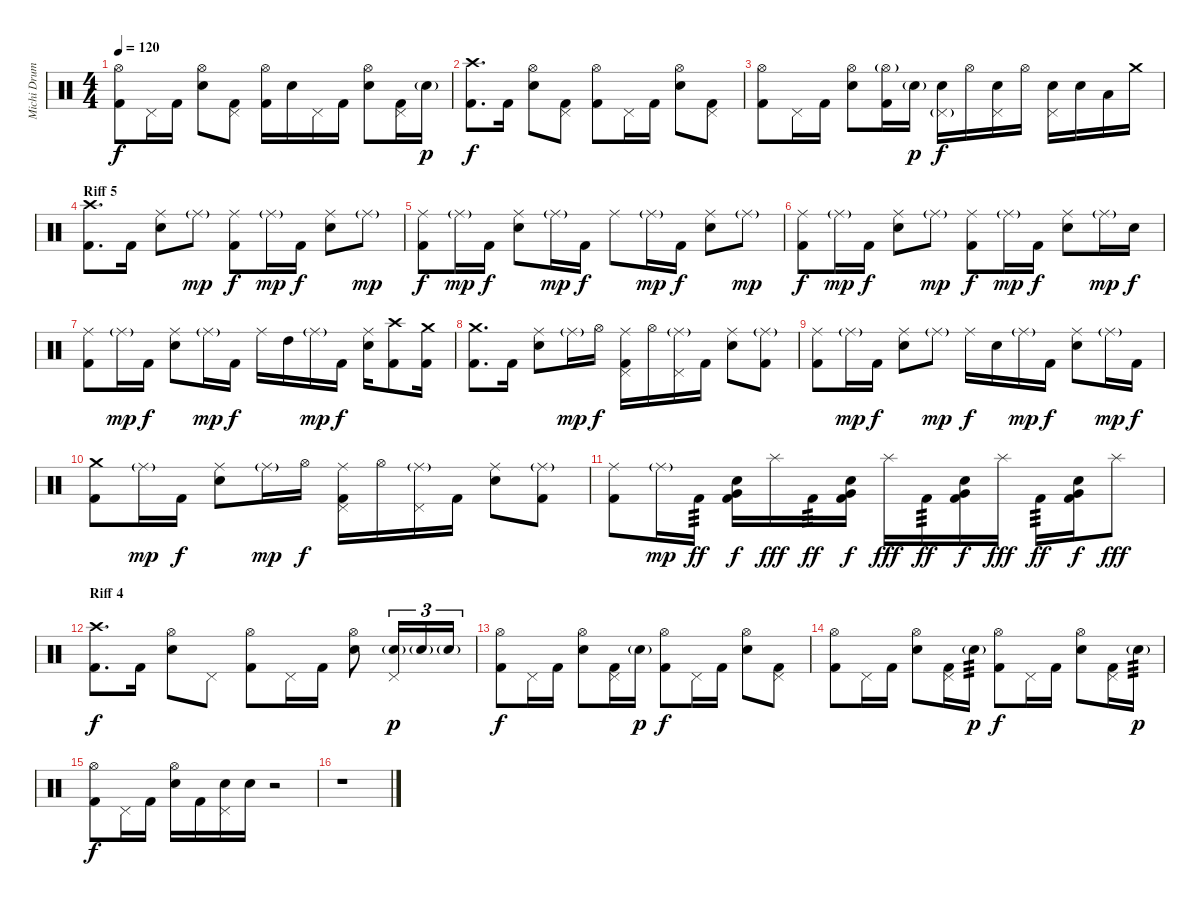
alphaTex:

\track ("Michi Drums" "Michi Drum") {instrument percussion}
\staff {score}
\articulation defaults
\ts (4 4)
\tempo 120
\clef neutral
\ks c
("Hi-Hat (open)" "Kick (hit) 2").8{dy f} "Pedal Hi-Hat (hit)".16 "Kick (hit) 2".16 ("Hi-Hat (open)" "Electric Snare (hit)").8 ("Pedal Hi-Hat (hit)" "Kick (hit) 2").8 ("Hi-Hat (open)" "Kick (hit) 2").16 "Electric Snare (hit)".16 "Pedal Hi-Hat (hit)".16 "Kick (hit) 2".16 ("Hi-Hat (open)" "Electric Snare (hit)").8 ("Pedal Hi-Hat (hit)" "Kick (hit) 2").16 "Electric Snare (hit)"{g}.16{dy p} |
("Crash high (hit)" "Kick (hit) 2").8{d dy f} "Kick (hit) 2".16 ("Hi-Hat (open)" "Electric Snare (hit)").8 ("Pedal Hi-Hat (hit)" "Kick (hit) 2").8 ("Hi-Hat (open)" "Kick (hit) 2").8 "Pedal Hi-Hat (hit)".16 "Kick (hit) 2".16 ("Hi-Hat (open)" "Electric Snare (hit)").8 ("Pedal Hi-Hat (hit)" "Kick (hit) 2").8 |
("Hi-Hat (open)" "Kick (hit) 2").8 "Pedal Hi-Hat (hit)".16 "Kick (hit) 2".16 ("Hi-Hat (open)" "Electric Snare (hit)").8 ("Hi-Hat (open)"{g} "Kick (hit) 2").16 "Electric Snare (hit)"{g}.16{dy p} ("Pedal Hi-Hat (hit)"{g} "Electric Snare (hit)").16{dy f} "Hi-Hat (open)".16 ("Pedal Hi-Hat (hit)" "Electric Snare (hit)").16 "Hi-Hat (open)".16 ("Pedal Hi-Hat (hit)" "Electric Snare (hit)").16 "Electric Snare (hit)".16 "Low Tom (hit)".16 "Crash medium (hit)".16 |
\section ("" "Riff 5")
("Crash high (hit)" "Kick (hit) 2").8{d} "Kick (hit) 2".16 ("Ride (middle)" "Electric Snare (hit)").8 "Ride (middle)"{g}.8{dy mp} ("Ride (middle)" "Kick (hit) 2").8{dy f} "Ride (middle)"{g}.16{dy mp} "Kick (hit) 2".16{dy f} ("Ride (middle)" "Electric Snare (hit)").8 "Ride (middle)"{g}.8{dy mp} |
("Ride (middle)" "Kick (hit) 2").8{dy f} "Ride (middle)"{g}.16{dy mp} "Kick (hit) 2".16{dy f} ("Ride (middle)" "Electric Snare (hit)").8 "Ride (middle)"{g}.16{dy mp} "Kick (hit) 2".16{dy f} "Ride (middle)".8 "Ride (middle)"{g}.16{dy mp} "Kick (hit) 2".16{dy f} ("Ride (middle)" "Electric Snare (hit)").8 "Ride (middle)"{g}.8{dy mp} |
("Ride (middle)" "Kick (hit) 2").8{dy f} "Ride (middle)"{g}.16{dy mp} "Kick (hit) 2".16{dy f} ("Ride (middle)" "Electric Snare (hit)").8 "Ride (middle)"{g}.8{dy mp} ("Ride (middle)" "Kick (hit) 2").8{dy f} "Ride (middle)"{g}.16{dy mp} "Kick (hit) 2".16{dy f} ("Ride (middle)" "Electric Snare (hit)").8 "Ride (middle)"{g}.16{dy mp} "Electric Snare (hit)".16{dy f} |
("Ride (middle)" "Kick (hit) 2").8 "Ride (middle)"{g}.16{dy mp} "Kick (hit) 2".16{dy f} ("Ride (middle)" "Electric Snare (hit)").8 "Ride (middle)"{g}.16{dy mp} "Kick (hit) 2".16{dy f} "Ride (middle)".16 "High Tom (hit)".16 "Ride (middle)"{g}.16{dy mp} "Kick (hit) 2".16{dy f} ("Ride (middle)" "Electric Snare (hit)").16 ("Crash high (hit)" "Kick (hit) 2").8 ("Crash medium (hit)" "Kick (hit) 2").16 |
("Crash medium (hit)" "Kick (hit) 2").8{d} "Kick (hit) 2".16 ("Ride (middle)" "Electric Snare (hit)").8 "Ride (middle)"{g}.16{dy mp} "Hi-Hat (open)".16{dy f} ("Ride (middle)" "Pedal Hi-Hat (hit)" "Kick (hit) 2").16 "Hi-Hat (open)".16 ("Ride (middle)"{g} "Pedal Hi-Hat (hit)").16 "Kick (hit) 2".16 ("Ride (middle)" "Electric Snare (hit)").8 ("Ride (middle)"{g} "Kick (hit) 2").8 |
("Ride (middle)" "Kick (hit) 2").8 "Ride (middle)"{g}.16{dy mp} "Kick (hit) 2".16{dy f} ("Ride (middle)" "Electric Snare (hit)").8 "Ride (middle)"{g}.8{dy mp} "Ride (middle)".16{dy f} "Electric Snare (hit)".16 "Ride (middle)"{g}.16{dy mp} "Kick (hit) 2".16{dy f} ("Ride (middle)" "Electric Snare (hit)").8 "Ride (middle)"{g}.16{dy mp} "Kick (hit) 2".16{dy f} |
("Crash medium (hit)" "Kick (hit) 2").8 "Ride (middle)"{g}.16{dy mp} "Kick (hit) 2".16{dy f} ("Ride (middle)" "Electric Snare (hit)").8 "Ride (middle)"{g}.16{dy mp} "Hi-Hat (open)".16{dy f} ("Ride (middle)" "Pedal Hi-Hat (hit)" "Kick (hit) 2").16 "Hi-Hat (open)".16 ("Ride (middle)"{g} "Pedal Hi-Hat (hit)").16 "Kick (hit) 2".16 ("Ride (middle)" "Electric Snare (hit)").8 ("Ride (middle)"{g} "Kick (hit) 2").8 |
("Ride (middle)" "Kick (hit) 2").8 "Ride (middle)"{g}.16{dy mp} "Kick (hit) 2".16{tp 3 dy ff} ("Electric Snare (hit)" "Very Low Tom (hit)" "Kick (hit) 2").16{bd 480 dy f} "Splash (hit)".16{dy fff} "Kick (hit) 2".16{tp 3 dy ff} ("Electric Snare (hit)" "Very Low Tom (hit)" "Kick (hit) 2").16{bd 480 dy f} "Splash (hit)".16{dy fff} "Kick (hit) 2".16{tp 3 dy ff} ("Electric Snare (hit)" "Very Low Tom (hit)" "Kick (hit) 2").16{bd 480 dy f} "Splash (hit)".16{dy fff} "Kick (hit) 2".16{tp 3 dy ff} ("Electric Snare (hit)" "Very Low Tom (hit)" "Kick (hit) 2").16{bd 480 dy f} "Splash (hit)".8{dy fff} |
\section ("" "Riff 4")
("Crash high (hit)" "Kick (hit) 2").8{d dy f} "Kick (hit) 2".16 ("Hi-Hat (open)" "Electric Snare (hit)").8 "Pedal Hi-Hat (hit)".8 ("Hi-Hat (open)" "Kick (hit) 2").8 "Pedal Hi-Hat (hit)".16 "Kick (hit) 2".16 ("Hi-Hat (open)" "Electric Snare (hit)").8 ("Pedal Hi-Hat (hit)" "Electric Snare (hit)"{g}).16{tu (3 2) dy p} "Electric Snare (hit)"{g}.16{tu (3 2)} "Electric Snare (hit)"{g}.16{tu (3 2)} |
("Hi-Hat (open)" "Kick (hit) 2").8{dy f} "Pedal Hi-Hat (hit)".16 "Kick (hit) 2".16 ("Hi-Hat (open)" "Electric Snare (hit)").8 ("Pedal Hi-Hat (hit)" "Kick (hit) 2").16 "Electric Snare (hit)"{g}.16{dy p} ("Hi-Hat (open)" "Kick (hit) 2").8{dy f} "Pedal Hi-Hat (hit)".16 "Kick (hit) 2".16 ("Hi-Hat (open)" "Electric Snare (hit)").8 ("Pedal Hi-Hat (hit)" "Kick (hit) 2").8 |
("Hi-Hat (open)" "Kick (hit) 2").8 "Pedal Hi-Hat (hit)".16 "Kick (hit) 2".16 ("Hi-Hat (open)" "Electric Snare (hit)").8 ("Pedal Hi-Hat (hit)" "Kick (hit) 2").16 "Electric Snare (hit)"{g}.16{tp 3 dy p} ("Hi-Hat (open)" "Kick (hit) 2").8{dy f} "Pedal Hi-Hat (hit)".16 "Kick (hit) 2".16 ("Hi-Hat (open)" "Electric Snare (hit)").8 ("Pedal Hi-Hat (hit)" "Kick (hit) 2").16 "Electric Snare (hit)"{g}.16{tp 3 dy p} |
("Hi-Hat (open)" "Kick (hit) 2").8{dy f} "Pedal Hi-Hat (hit)".16 "Kick (hit) 2".16 ("Hi-Hat (open)" "Electric Snare (hit)").16 "Kick (hit) 2".16 ("Pedal Hi-Hat (hit)" "Electric Snare (hit)").16 "Electric Snare (hit)".16 r.2 |
r.1
